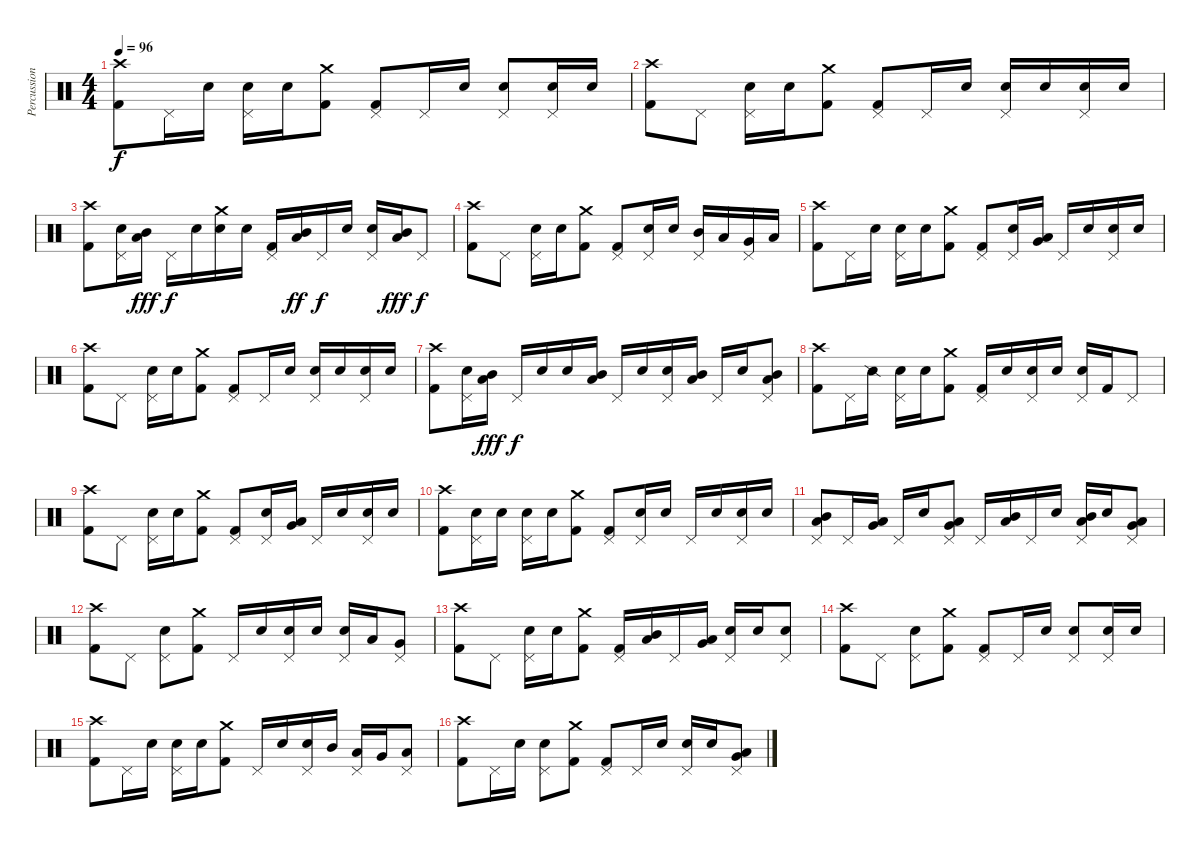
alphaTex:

\track ("Percussion" "Percussion") {instrument percussion}
\staff {score}
\articulation defaults
\ts (4 4)
\tempo 96
\clef neutral
\ks c
("Crash high (hit)" "Kick (hit) 2").8{dy f} "Pedal Hi-Hat (hit)".16 "Electric Snare (hit)".16 ("Pedal Hi-Hat (hit)" "Electric Snare (hit)").16 "Electric Snare (hit)".16 ("Crash medium (hit)" "Kick (hit) 2").8 ("Pedal Hi-Hat (hit)" "Kick (hit) 2").8 "Pedal Hi-Hat (hit)".16 "Electric Snare (hit)".16 ("Pedal Hi-Hat (hit)" "Electric Snare (hit)").8 ("Pedal Hi-Hat (hit)" "Electric Snare (hit)").16 "Electric Snare (hit)".16 |
("Crash high (hit)" "Kick (hit) 2").8 "Pedal Hi-Hat (hit)".8 ("Pedal Hi-Hat (hit)" "Electric Snare (hit)").16 "Electric Snare (hit)".16 ("Crash medium (hit)" "Kick (hit) 2").8 ("Pedal Hi-Hat (hit)" "Kick (hit) 2").8 "Pedal Hi-Hat (hit)".16 "Electric Snare (hit)".16 ("Pedal Hi-Hat (hit)" "Electric Snare (hit)").16 "Electric Snare (hit)".16 ("Pedal Hi-Hat (hit)" "Electric Snare (hit)").16 "Electric Snare (hit)".16 |
("Crash high (hit)" "Kick (hit) 2").8 ("Pedal Hi-Hat (hit)" "Electric Snare (hit)").16 ("Mid Tom (hit)" "Low Tom (hit)").16{dy fff} "Pedal Hi-Hat (hit)".16{dy f} "Electric Snare (hit)".16 ("Crash medium (hit)" "Electric Snare (hit)").16 "Electric Snare (hit)".16 ("Pedal Hi-Hat (hit)" "Kick (hit) 2").16 ("Mid Tom (hit)" "Low Tom (hit)").16{dy ff} "Pedal Hi-Hat (hit)".16{dy f} "Electric Snare (hit)".16 ("Pedal Hi-Hat (hit)" "Electric Snare (hit)").16 ("Mid Tom (hit)" "Low Tom (hit)").16{dy fff} "Pedal Hi-Hat (hit)".8{dy f} |
("Crash high (hit)" "Kick (hit) 2").8 "Pedal Hi-Hat (hit)".8 ("Pedal Hi-Hat (hit)" "Electric Snare (hit)").16 "Electric Snare (hit)".16 ("Crash medium (hit)" "Kick (hit) 2").8 ("Pedal Hi-Hat (hit)" "Kick (hit) 2").8 ("Pedal Hi-Hat (hit)" "Electric Snare (hit)").16 "Electric Snare (hit)".16 ("Pedal Hi-Hat (hit)" "Mid Tom (hit)").16 "Low Tom (hit)".16 ("Pedal Hi-Hat (hit)" "Very Low Tom (hit)").16 "Low Floor Tom (hit)".16 |
("Crash high (hit)" "Kick (hit) 2").8 "Pedal Hi-Hat (hit)".16 "Electric Snare (hit)".16 ("Pedal Hi-Hat (hit)" "Electric Snare (hit)").16 "Electric Snare (hit)".16 ("Crash medium (hit)" "Kick (hit) 2").8 ("Pedal Hi-Hat (hit)" "Kick (hit) 2").8 ("Pedal Hi-Hat (hit)" "Electric Snare (hit)").16 ("Low Tom (hit)" "Very Low Tom (hit)").16 "Pedal Hi-Hat (hit)".16 "Electric Snare (hit)".16 ("Pedal Hi-Hat (hit)" "Electric Snare (hit)").16 "Electric Snare (hit)".16 |
("Crash high (hit)" "Kick (hit) 2").8 "Pedal Hi-Hat (hit)".8 ("Pedal Hi-Hat (hit)" "Electric Snare (hit)").16 "Electric Snare (hit)".16 ("Crash medium (hit)" "Kick (hit) 2").8 ("Pedal Hi-Hat (hit)" "Kick (hit) 2").8 "Pedal Hi-Hat (hit)".16 "Electric Snare (hit)".16 ("Pedal Hi-Hat (hit)" "Electric Snare (hit)").16 "Electric Snare (hit)".16 ("Pedal Hi-Hat (hit)" "Electric Snare (hit)").16 "Electric Snare (hit)".16 |
("Crash high (hit)" "Kick (hit) 2").8 ("Pedal Hi-Hat (hit)" "Electric Snare (hit)").16 ("Mid Tom (hit)" "Low Tom (hit)").16{dy fff} "Pedal Hi-Hat (hit)".16{dy f} "Electric Snare (hit)".16 "Electric Snare (hit)".16 ("Mid Tom (hit)" "Low Tom (hit)").16 "Pedal Hi-Hat (hit)".16 "Electric Snare (hit)".16 ("Pedal Hi-Hat (hit)" "Electric Snare (hit)").16 ("Mid Tom (hit)" "Low Tom (hit)").16 "Pedal Hi-Hat (hit)".16 "Electric Snare (hit)".16 ("Pedal Hi-Hat (hit)" "Mid Tom (hit)" "Low Tom (hit)").8 |
("Crash high (hit)" "Kick (hit) 2").8 "Pedal Hi-Hat (hit)".16 "Snare (side stick) 2".16 ("Pedal Hi-Hat (hit)" "Electric Snare (hit)").16 "Electric Snare (hit)".16 ("Crash medium (hit)" "Kick (hit) 2").8 ("Pedal Hi-Hat (hit)" "Kick (hit) 2").16 "Electric Snare (hit)".16 ("Pedal Hi-Hat (hit)" "Electric Snare (hit)").16 "Electric Snare (hit)".16 ("Pedal Hi-Hat (hit)" "Electric Snare (hit)").16 "Kick (hit) 2".16 "Pedal Hi-Hat (hit)".8 |
("Crash high (hit)" "Kick (hit) 2").8 "Pedal Hi-Hat (hit)".8 ("Pedal Hi-Hat (hit)" "Electric Snare (hit)").16 "Electric Snare (hit)".16 ("Crash medium (hit)" "Kick (hit) 2").8 ("Pedal Hi-Hat (hit)" "Kick (hit) 2").8 ("Pedal Hi-Hat (hit)" "Electric Snare (hit)").16 ("Low Tom (hit)" "Very Low Tom (hit)").16 "Pedal Hi-Hat (hit)".16 "Electric Snare (hit)".16 ("Pedal Hi-Hat (hit)" "Electric Snare (hit)").16 "Electric Snare (hit)".16 |
("Crash high (hit)" "Kick (hit) 2").8 ("Pedal Hi-Hat (hit)" "Electric Snare (hit)").16 "Electric Snare (hit)".16 ("Pedal Hi-Hat (hit)" "Electric Snare (hit)").16 "Electric Snare (hit)".16 ("Crash medium (hit)" "Kick (hit) 2").8 ("Pedal Hi-Hat (hit)" "Kick (hit) 2").8 ("Pedal Hi-Hat (hit)" "Electric Snare (hit)").16 "Electric Snare (hit)".16 "Pedal Hi-Hat (hit)".16 "Electric Snare (hit)".16 ("Pedal Hi-Hat (hit)" "Electric Snare (hit)").16 "Electric Snare (hit)".16 |
("Pedal Hi-Hat (hit)" "Mid Tom (hit)" "Low Tom (hit)").8 "Pedal Hi-Hat (hit)".16 ("Low Tom (hit)" "Very Low Tom (hit)").16 "Pedal Hi-Hat (hit)".16 "Electric Snare (hit)".16 ("Pedal Hi-Hat (hit)" "Low Tom (hit)" "Very Low Tom (hit)").8 "Pedal Hi-Hat (hit)".16 ("Mid Tom (hit)" "Low Tom (hit)").16 "Pedal Hi-Hat (hit)".16 "Electric Snare (hit)".16 ("Pedal Hi-Hat (hit)" "Mid Tom (hit)" "Low Tom (hit)").16 "Electric Snare (hit)".16 ("Pedal Hi-Hat (hit)" "Low Tom (hit)" "Very Low Tom (hit)").8 |
("Crash high (hit)" "Kick (hit) 2").8 "Pedal Hi-Hat (hit)".8 ("Pedal Hi-Hat (hit)" "Electric Snare (hit)").8 ("Crash medium (hit)" "Kick (hit) 2").8 "Pedal Hi-Hat (hit)".16 "Electric Snare (hit)".16 ("Pedal Hi-Hat (hit)" "Electric Snare (hit)").16 "Electric Snare (hit)".16 ("Pedal Hi-Hat (hit)" "Electric Snare (hit)").16 "Low Tom (hit)".16 ("Pedal Hi-Hat (hit)" "Very Low Tom (hit)").8 |
("Crash high (hit)" "Kick (hit) 2").8 "Pedal Hi-Hat (hit)".8 ("Pedal Hi-Hat (hit)" "Electric Snare (hit)").16 "Electric Snare (hit)".16 ("Crash medium (hit)" "Kick (hit) 2").8 ("Pedal Hi-Hat (hit)" "Kick (hit) 2").16 ("Mid Tom (hit)" "Low Tom (hit)").16 "Pedal Hi-Hat (hit)".16 ("Low Tom (hit)" "Very Low Tom (hit)").16 ("Pedal Hi-Hat (hit)" "Electric Snare (hit)").16 "Electric Snare (hit)".16 ("Pedal Hi-Hat (hit)" "Electric Snare (hit)").8 |
("Crash high (hit)" "Kick (hit) 2").8 "Pedal Hi-Hat (hit)".8 ("Pedal Hi-Hat (hit)" "Electric Snare (hit)").8 ("Crash medium (hit)" "Kick (hit) 2").8 ("Pedal Hi-Hat (hit)" "Kick (hit) 2").8 "Pedal Hi-Hat (hit)".16 "Electric Snare (hit)".16 ("Pedal Hi-Hat (hit)" "Electric Snare (hit)").8 ("Pedal Hi-Hat (hit)" "Electric Snare (hit)").16 "Electric Snare (hit)".16 |
("Crash high (hit)" "Kick (hit) 2").8 "Pedal Hi-Hat (hit)".16 "Electric Snare (hit)".16 ("Pedal Hi-Hat (hit)" "Electric Snare (hit)").16 "Electric Snare (hit)".16 ("Crash medium (hit)" "Kick (hit) 2").8 "Pedal Hi-Hat (hit)".16 "Electric Snare (hit)".16 ("Pedal Hi-Hat (hit)" "Electric Snare (hit)").16 "Mid Tom (hit)".16 ("Pedal Hi-Hat (hit)" "Low Tom (hit)").16 "Very Low Tom (hit)".16 ("Pedal Hi-Hat (hit)" "Low Floor Tom (hit)").8 |
("Crash high (hit)" "Kick (hit) 2").8 "Pedal Hi-Hat (hit)".16 "Electric Snare (hit)".16 ("Pedal Hi-Hat (hit)" "Electric Snare (hit)").8 ("Crash medium (hit)" "Kick (hit) 2").8 ("Pedal Hi-Hat (hit)" "Kick (hit) 2").8 "Pedal Hi-Hat (hit)".16 "Electric Snare (hit)".16 ("Pedal Hi-Hat (hit)" "Electric Snare (hit)").16 "Electric Snare (hit)".16 ("Pedal Hi-Hat (hit)" "Low Tom (hit)" "Very Low Tom (hit)").8
